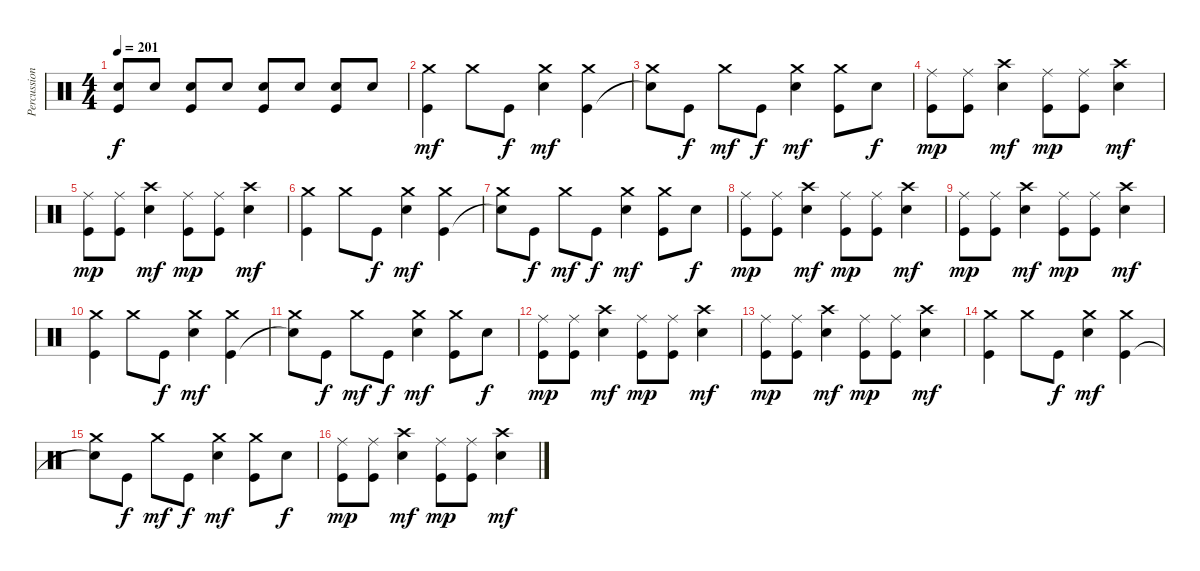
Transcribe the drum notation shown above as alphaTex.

\track ("Percussion" "Percussion") {instrument percussion}
\staff {score}
\articulation defaults
\ts (4 4)
\tempo 201
\clef neutral
\ks c
("Electric Snare (hit)" "Kick (hit)").8{dy f} "Electric Snare (hit)".8 ("Electric Snare (hit)" "Kick (hit)").8 "Electric Snare (hit)".8 ("Electric Snare (hit)" "Kick (hit)").8 "Electric Snare (hit)".8 ("Electric Snare (hit)" "Kick (hit)").8 "Electric Snare (hit)".8 |
("Crash medium (hit)" "Kick (hit)").4{dy mf} "Crash medium (hit)".8 "Kick (hit)".8{dy f} ("Crash medium (hit)" "Electric Snare (hit)").4{dy mf} ("Crash medium (hit)" "Kick (hit)").4 |
("Crash medium (hit)" "Snare (hit)"{t}).8 "Kick (hit)".8{dy f} "Crash medium (hit)".8{dy mf} "Kick (hit)".8{dy f} ("Crash medium (hit)" "Electric Snare (hit)").4{dy mf} ("Crash medium (hit)" "Kick (hit)").8 "Electric Snare (hit)".8{dy f} |
("Ride (middle)" "Kick (hit)").8{dy mp} ("Ride (middle)" "Kick (hit)").8 ("Crash high (hit)" "Electric Snare (hit)").4{dy mf} ("Ride (middle)" "Kick (hit)").8{dy mp} ("Ride (middle)" "Kick (hit)").8 ("Crash high (hit)" "Electric Snare (hit)").4{dy mf} |
("Ride (middle)" "Kick (hit)").8{dy mp} ("Ride (middle)" "Kick (hit)").8 ("Crash high (hit)" "Electric Snare (hit)").4{dy mf} ("Ride (middle)" "Kick (hit)").8{dy mp} ("Ride (middle)" "Kick (hit)").8 ("Crash high (hit)" "Electric Snare (hit)").4{dy mf} |
("Crash medium (hit)" "Kick (hit)").4 "Crash medium (hit)".8 "Kick (hit)".8{dy f} ("Crash medium (hit)" "Electric Snare (hit)").4{dy mf} ("Crash medium (hit)" "Kick (hit)").4 |
("Crash medium (hit)" "Snare (hit)"{t}).8 "Kick (hit)".8{dy f} "Crash medium (hit)".8{dy mf} "Kick (hit)".8{dy f} ("Crash medium (hit)" "Electric Snare (hit)").4{dy mf} ("Crash medium (hit)" "Kick (hit)").8 "Electric Snare (hit)".8{dy f} |
("Ride (middle)" "Kick (hit)").8{dy mp} ("Ride (middle)" "Kick (hit)").8 ("Crash high (hit)" "Electric Snare (hit)").4{dy mf} ("Ride (middle)" "Kick (hit)").8{dy mp} ("Ride (middle)" "Kick (hit)").8 ("Crash high (hit)" "Electric Snare (hit)").4{dy mf} |
("Ride (middle)" "Kick (hit)").8{dy mp} ("Ride (middle)" "Kick (hit)").8 ("Crash high (hit)" "Electric Snare (hit)").4{dy mf} ("Ride (middle)" "Kick (hit)").8{dy mp} ("Ride (middle)" "Kick (hit)").8 ("Crash high (hit)" "Electric Snare (hit)").4{dy mf} |
("Crash medium (hit)" "Kick (hit)").4 "Crash medium (hit)".8 "Kick (hit)".8{dy f} ("Crash medium (hit)" "Electric Snare (hit)").4{dy mf} ("Crash medium (hit)" "Kick (hit)").4 |
("Crash medium (hit)" "Snare (hit)"{t}).8 "Kick (hit)".8{dy f} "Crash medium (hit)".8{dy mf} "Kick (hit)".8{dy f} ("Crash medium (hit)" "Electric Snare (hit)").4{dy mf} ("Crash medium (hit)" "Kick (hit)").8 "Electric Snare (hit)".8{dy f} |
("Ride (middle)" "Kick (hit)").8{dy mp} ("Ride (middle)" "Kick (hit)").8 ("Crash high (hit)" "Electric Snare (hit)").4{dy mf} ("Ride (middle)" "Kick (hit)").8{dy mp} ("Ride (middle)" "Kick (hit)").8 ("Crash high (hit)" "Electric Snare (hit)").4{dy mf} |
("Ride (middle)" "Kick (hit)").8{dy mp} ("Ride (middle)" "Kick (hit)").8 ("Crash high (hit)" "Electric Snare (hit)").4{dy mf} ("Ride (middle)" "Kick (hit)").8{dy mp} ("Ride (middle)" "Kick (hit)").8 ("Crash high (hit)" "Electric Snare (hit)").4{dy mf} |
("Crash medium (hit)" "Kick (hit)").4 "Crash medium (hit)".8 "Kick (hit)".8{dy f} ("Crash medium (hit)" "Electric Snare (hit)").4{dy mf} ("Crash medium (hit)" "Kick (hit)").4 |
("Crash medium (hit)" "Snare (hit)"{t}).8 "Kick (hit)".8{dy f} "Crash medium (hit)".8{dy mf} "Kick (hit)".8{dy f} ("Crash medium (hit)" "Electric Snare (hit)").4{dy mf} ("Crash medium (hit)" "Kick (hit)").8 "Electric Snare (hit)".8{dy f} |
("Ride (middle)" "Kick (hit)").8{dy mp} ("Ride (middle)" "Kick (hit)").8 ("Crash high (hit)" "Electric Snare (hit)").4{dy mf} ("Ride (middle)" "Kick (hit)").8{dy mp} ("Ride (middle)" "Kick (hit)").8 ("Crash high (hit)" "Electric Snare (hit)").4{dy mf}
